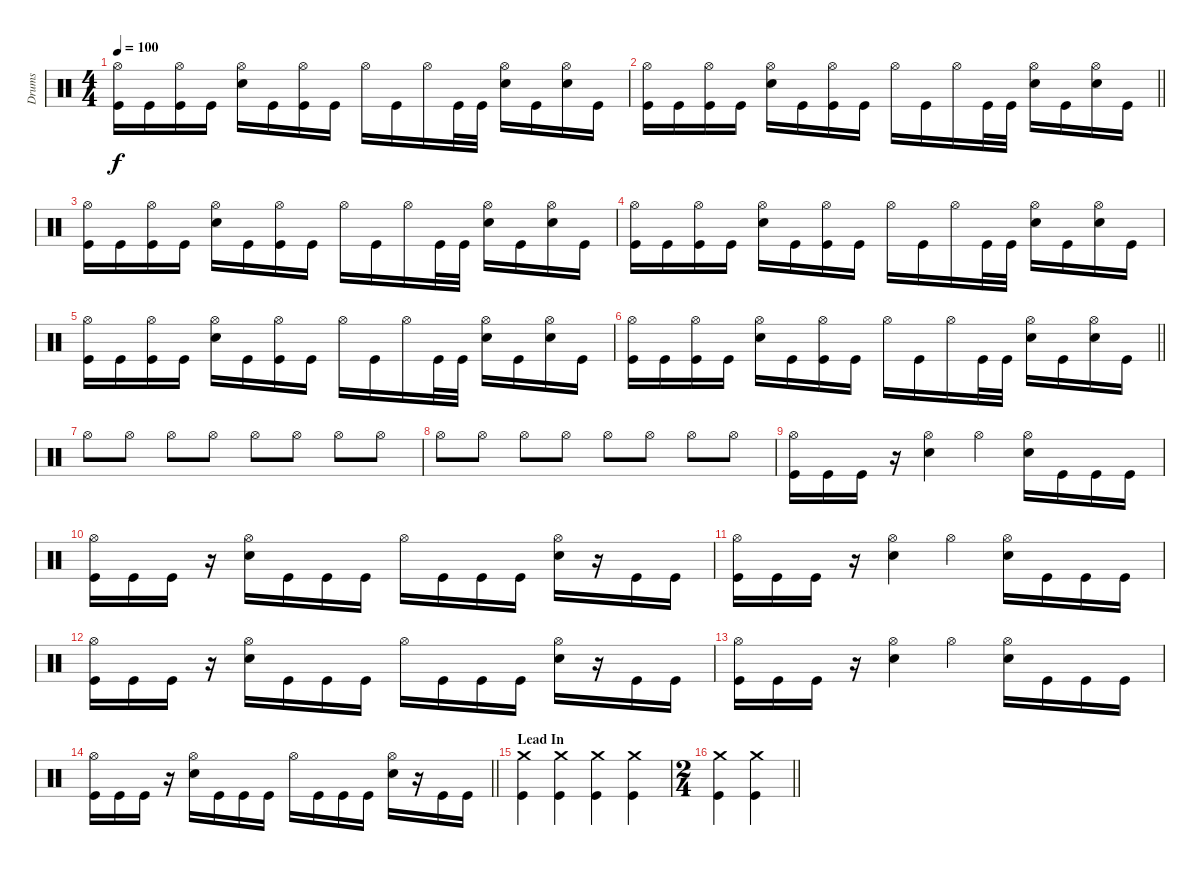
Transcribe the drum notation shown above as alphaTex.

\track ("Drums" "Drums") {instrument percussion}
\staff {score}
\articulation defaults
\ts (4 4)
\tempo 100
\clef neutral
\ks c
("Hi-Hat (open)" "Kick (hit)").16{dy f} "Kick (hit)".16 ("Hi-Hat (open)" "Kick (hit)").16 "Kick (hit)".16 ("Hi-Hat (open)" "Snare (hit) 2").16 "Kick (hit)".16 ("Hi-Hat (open)" "Kick (hit)").16 "Kick (hit)".16 "Hi-Hat (open)".16 "Kick (hit)".16 "Hi-Hat (open)".16 "Kick (hit)".32 "Kick (hit)".32 ("Hi-Hat (open)" "Snare (hit) 2").16 "Kick (hit)".16 ("Hi-Hat (open)" "Snare (hit) 2").16 "Kick (hit)".16 |
\barLineRight lightlight
("Hi-Hat (open)" "Kick (hit)").16 "Kick (hit)".16 ("Hi-Hat (open)" "Kick (hit)").16 "Kick (hit)".16 ("Hi-Hat (open)" "Snare (hit) 2").16 "Kick (hit)".16 ("Hi-Hat (open)" "Kick (hit)").16 "Kick (hit)".16 "Hi-Hat (open)".16 "Kick (hit)".16 "Hi-Hat (open)".16 "Kick (hit)".32 "Kick (hit)".32 ("Hi-Hat (open)" "Snare (hit) 2").16 "Kick (hit)".16 ("Hi-Hat (open)" "Snare (hit) 2").16 "Kick (hit)".16 |
("Hi-Hat (open)" "Kick (hit)").16 "Kick (hit)".16 ("Hi-Hat (open)" "Kick (hit)").16 "Kick (hit)".16 ("Hi-Hat (open)" "Snare (hit) 2").16 "Kick (hit)".16 ("Hi-Hat (open)" "Kick (hit)").16 "Kick (hit)".16 "Hi-Hat (open)".16 "Kick (hit)".16 "Hi-Hat (open)".16 "Kick (hit)".32 "Kick (hit)".32 ("Hi-Hat (open)" "Snare (hit) 2").16 "Kick (hit)".16 ("Hi-Hat (open)" "Snare (hit) 2").16 "Kick (hit)".16 |
("Hi-Hat (open)" "Kick (hit)").16 "Kick (hit)".16 ("Hi-Hat (open)" "Kick (hit)").16 "Kick (hit)".16 ("Hi-Hat (open)" "Snare (hit) 2").16 "Kick (hit)".16 ("Hi-Hat (open)" "Kick (hit)").16 "Kick (hit)".16 "Hi-Hat (open)".16 "Kick (hit)".16 "Hi-Hat (open)".16 "Kick (hit)".32 "Kick (hit)".32 ("Hi-Hat (open)" "Snare (hit) 2").16 "Kick (hit)".16 ("Hi-Hat (open)" "Snare (hit) 2").16 "Kick (hit)".16 |
("Hi-Hat (open)" "Kick (hit)").16 "Kick (hit)".16 ("Hi-Hat (open)" "Kick (hit)").16 "Kick (hit)".16 ("Hi-Hat (open)" "Snare (hit) 2").16 "Kick (hit)".16 ("Hi-Hat (open)" "Kick (hit)").16 "Kick (hit)".16 "Hi-Hat (open)".16 "Kick (hit)".16 "Hi-Hat (open)".16 "Kick (hit)".32 "Kick (hit)".32 ("Hi-Hat (open)" "Snare (hit) 2").16 "Kick (hit)".16 ("Hi-Hat (open)" "Snare (hit) 2").16 "Kick (hit)".16 |
\barLineRight lightlight
("Hi-Hat (open)" "Kick (hit)").16 "Kick (hit)".16 ("Hi-Hat (open)" "Kick (hit)").16 "Kick (hit)".16 ("Hi-Hat (open)" "Snare (hit) 2").16 "Kick (hit)".16 ("Hi-Hat (open)" "Kick (hit)").16 "Kick (hit)".16 "Hi-Hat (open)".16 "Kick (hit)".16 "Hi-Hat (open)".16 "Kick (hit)".32 "Kick (hit)".32 ("Hi-Hat (open)" "Snare (hit) 2").16 "Kick (hit)".16 ("Hi-Hat (open)" "Snare (hit) 2").16 "Kick (hit)".16 |
"Hi-Hat (open)".8 "Hi-Hat (open)".8 "Hi-Hat (open)".8 "Hi-Hat (open)".8 "Hi-Hat (open)".8 "Hi-Hat (open)".8 "Hi-Hat (open)".8 "Hi-Hat (open)".8 |
"Hi-Hat (open)".8 "Hi-Hat (open)".8 "Hi-Hat (open)".8 "Hi-Hat (open)".8 "Hi-Hat (open)".8 "Hi-Hat (open)".8 "Hi-Hat (open)".8 "Hi-Hat (open)".8 |
("Hi-Hat (open)" "Kick (hit)").16 "Kick (hit)".16 "Kick (hit)".16 r.16 ("Hi-Hat (open)" "Snare (hit) 2").4 "Hi-Hat (open)".4 ("Hi-Hat (open)" "Snare (hit) 2").16 "Kick (hit)".16 "Kick (hit)".16 "Kick (hit)".16 |
("Hi-Hat (open)" "Kick (hit)").16 "Kick (hit)".16 "Kick (hit)".16 r.16 ("Hi-Hat (open)" "Snare (hit) 2").16 "Kick (hit)".16 "Kick (hit)".16 "Kick (hit)".16 "Hi-Hat (open)".16 "Kick (hit)".16 "Kick (hit)".16 "Kick (hit)".16 ("Hi-Hat (open)" "Snare (hit) 2").16 r.16 "Kick (hit)".16 "Kick (hit)".16 |
("Hi-Hat (open)" "Kick (hit)").16 "Kick (hit)".16 "Kick (hit)".16 r.16 ("Hi-Hat (open)" "Snare (hit) 2").4 "Hi-Hat (open)".4 ("Hi-Hat (open)" "Snare (hit) 2").16 "Kick (hit)".16 "Kick (hit)".16 "Kick (hit)".16 |
("Hi-Hat (open)" "Kick (hit)").16 "Kick (hit)".16 "Kick (hit)".16 r.16 ("Hi-Hat (open)" "Snare (hit) 2").16 "Kick (hit)".16 "Kick (hit)".16 "Kick (hit)".16 "Hi-Hat (open)".16 "Kick (hit)".16 "Kick (hit)".16 "Kick (hit)".16 ("Hi-Hat (open)" "Snare (hit) 2").16 r.16 "Kick (hit)".16 "Kick (hit)".16 |
("Hi-Hat (open)" "Kick (hit)").16 "Kick (hit)".16 "Kick (hit)".16 r.16 ("Hi-Hat (open)" "Snare (hit) 2").4 "Hi-Hat (open)".4 ("Hi-Hat (open)" "Snare (hit) 2").16 "Kick (hit)".16 "Kick (hit)".16 "Kick (hit)".16 |
\barLineRight lightlight
("Hi-Hat (open)" "Kick (hit)").16 "Kick (hit)".16 "Kick (hit)".16 r.16 ("Hi-Hat (open)" "Snare (hit) 2").16 "Kick (hit)".16 "Kick (hit)".16 "Kick (hit)".16 "Hi-Hat (open)".16 "Kick (hit)".16 "Kick (hit)".16 "Kick (hit)".16 ("Hi-Hat (open)" "Snare (hit) 2").16 r.16 "Kick (hit)".16 "Kick (hit)".16 |
\section ("" "Lead In")
("Crash medium (hit)" "Kick (hit)").4 ("Crash medium (hit)" "Kick (hit)").4 ("Crash medium (hit)" "Kick (hit)").4 ("Crash medium (hit)" "Kick (hit)").4 |
\ts (2 4)
\barLineRight lightlight
("Crash medium (hit)" "Kick (hit)").4 ("Crash medium (hit)" "Kick (hit)").4
